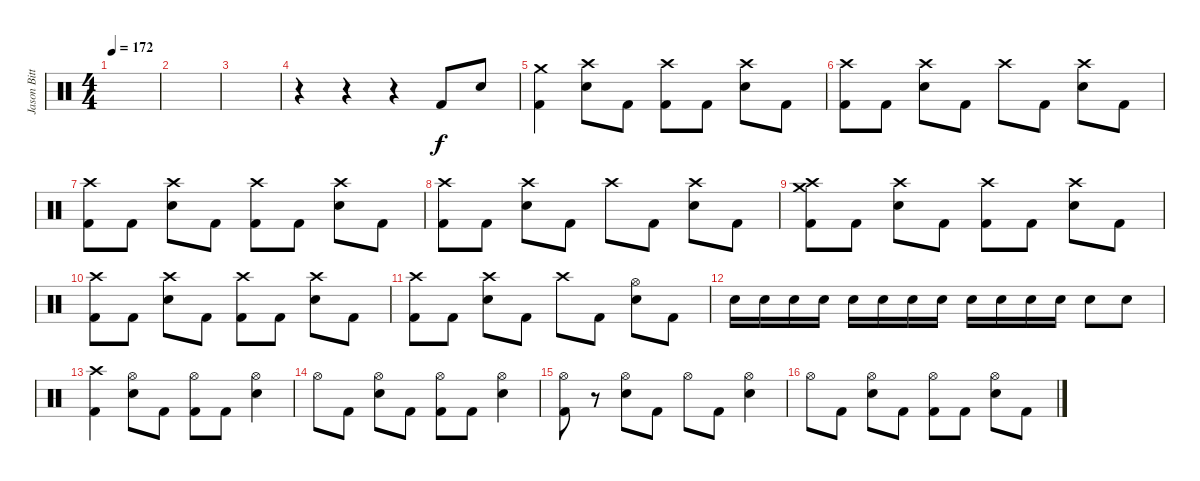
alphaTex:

\track ("Jason Bittner" "Jason Bitt") {instrument percussion}
\staff {score}
\articulation defaults
\ts (4 4)
\tempo 172
\clef neutral
\ks c
|
|
|
r.4 r.4 r.4 "Kick (hit) 2".8 "Electric Snare (hit)".8 |
("Crash medium (hit)" "Kick (hit) 2").4 ("Crash high (hit)" "Electric Snare (hit)").8 "Kick (hit) 2".8 ("Crash high (hit)" "Kick (hit) 2").8 "Kick (hit) 2".8 ("Crash high (hit)" "Electric Snare (hit)").8 "Kick (hit) 2".8 |
("Crash high (hit)" "Kick (hit) 2").8 "Kick (hit) 2".8 ("Crash high (hit)" "Electric Snare (hit)").8 "Kick (hit) 2".8 "Crash high (hit)".8 "Kick (hit) 2".8 ("Crash high (hit)" "Electric Snare (hit)").8 "Kick (hit) 2".8 |
("Crash high (hit)" "Kick (hit) 2").8 "Kick (hit) 2".8 ("Crash high (hit)" "Electric Snare (hit)").8 "Kick (hit) 2".8 ("Crash high (hit)" "Kick (hit) 2").8 "Kick (hit) 2".8 ("Crash high (hit)" "Electric Snare (hit)").8 "Kick (hit) 2".8 |
("Crash high (hit)" "Kick (hit) 2").8 "Kick (hit) 2".8 ("Crash high (hit)" "Electric Snare (hit)").8 "Kick (hit) 2".8 "Crash high (hit)".8 "Kick (hit) 2".8 ("Crash high (hit)" "Electric Snare (hit)").8 "Kick (hit) 2".8 |
("Crash medium (hit)" "Crash high (hit)" "Kick (hit) 2").8 "Kick (hit) 2".8 ("Crash high (hit)" "Electric Snare (hit)").8 "Kick (hit) 2".8 ("Crash high (hit)" "Kick (hit) 2").8 "Kick (hit) 2".8 ("Crash high (hit)" "Electric Snare (hit)").8 "Kick (hit) 2".8 |
("Crash high (hit)" "Kick (hit) 2").8 "Kick (hit) 2".8 ("Crash high (hit)" "Electric Snare (hit)").8 "Kick (hit) 2".8 ("Crash high (hit)" "Kick (hit) 2").8 "Kick (hit) 2".8 ("Crash high (hit)" "Electric Snare (hit)").8 "Kick (hit) 2".8 |
("Crash high (hit)" "Kick (hit) 2").8 "Kick (hit) 2".8 ("Crash high (hit)" "Electric Snare (hit)").8 "Kick (hit) 2".8 "Crash high (hit)".8 "Kick (hit) 2".8 ("Hi-Hat (open)" "Electric Snare (hit)").8 "Kick (hit) 2".8 |
"Electric Snare (hit)".16 "Electric Snare (hit)".16 "Electric Snare (hit)".16 "Electric Snare (hit)".16 "Electric Snare (hit)".16 "Electric Snare (hit)".16 "Electric Snare (hit)".16 "Electric Snare (hit)".16 "Electric Snare (hit)".16 "Electric Snare (hit)".16 "Electric Snare (hit)".16 "Electric Snare (hit)".16 "Electric Snare (hit)".8 "Electric Snare (hit)".8 |
("Crash high (hit)" "Kick (hit) 2").4 ("Hi-Hat (open)" "Electric Snare (hit)").8 "Kick (hit) 2".8 ("Hi-Hat (open)" "Kick (hit) 2").8 "Kick (hit) 2".8 ("Hi-Hat (open)" "Electric Snare (hit)").4 |
"Hi-Hat (open)".8 "Kick (hit) 2".8 ("Hi-Hat (open)" "Electric Snare (hit)").8 "Kick (hit) 2".8 ("Hi-Hat (open)" "Kick (hit) 2").8 "Kick (hit) 2".8 ("Hi-Hat (open)" "Electric Snare (hit)").4 |
("Hi-Hat (open)" "Kick (hit) 2").8 r.8 ("Hi-Hat (open)" "Electric Snare (hit)").8 "Kick (hit) 2".8 "Hi-Hat (open)".8 "Kick (hit) 2".8 ("Hi-Hat (open)" "Electric Snare (hit)").4 |
"Hi-Hat (open)".8 "Kick (hit) 2".8 ("Hi-Hat (open)" "Electric Snare (hit)").8 "Kick (hit) 2".8 ("Hi-Hat (open)" "Kick (hit) 2").8 "Kick (hit) 2".8 ("Hi-Hat (open)" "Electric Snare (hit)").8 "Kick (hit) 2".8
